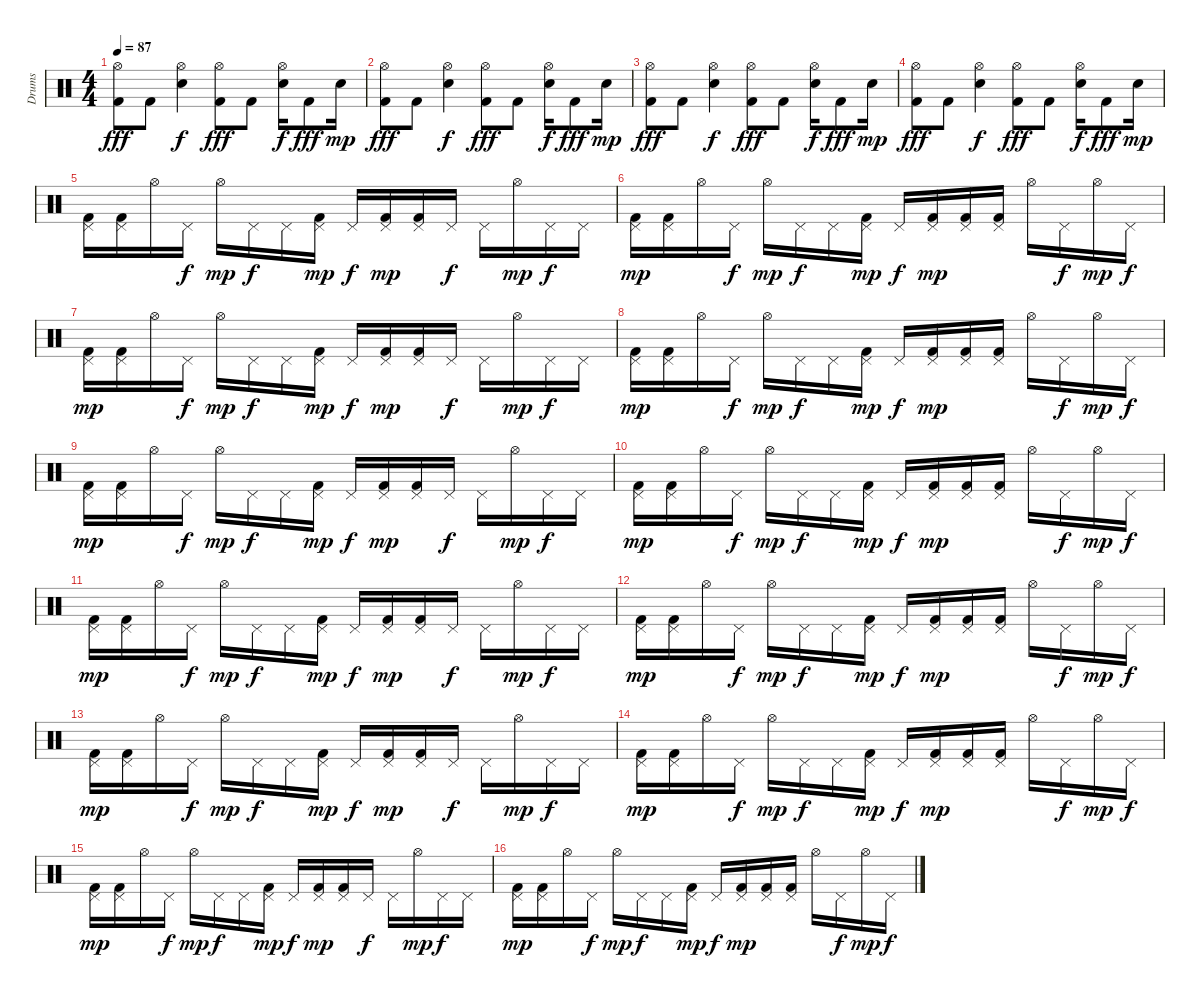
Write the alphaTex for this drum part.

\track ("Drums" "Drums") {instrument percussion}
\staff {score}
\articulation defaults
\ts (4 4)
\tempo 87
\clef neutral
\ks c
("Hi-Hat (open)" "Kick (hit) 2").8{dy fff} "Kick (hit) 2".8 ("Hi-Hat (open)" "Snare (hit) 2").4{dy f} ("Hi-Hat (open)" "Kick (hit) 2").8{dy fff} "Kick (hit) 2".8 ("Hi-Hat (open)" "Snare (hit) 2").16{dy f} "Kick (hit) 2".8{dy fff} "Snare (hit) 2".16{dy mp} |
("Hi-Hat (open)" "Kick (hit) 2").8{dy fff} "Kick (hit) 2".8 ("Hi-Hat (open)" "Snare (hit) 2").4{dy f} ("Hi-Hat (open)" "Kick (hit) 2").8{dy fff} "Kick (hit) 2".8 ("Hi-Hat (open)" "Snare (hit) 2").16{dy f} "Kick (hit) 2".8{dy fff} "Snare (hit) 2".16{dy mp} |
("Hi-Hat (open)" "Kick (hit) 2").8{dy fff} "Kick (hit) 2".8 ("Hi-Hat (open)" "Snare (hit) 2").4{dy f} ("Hi-Hat (open)" "Kick (hit) 2").8{dy fff} "Kick (hit) 2".8 ("Hi-Hat (open)" "Snare (hit) 2").16{dy f} "Kick (hit) 2".8{dy fff} "Snare (hit) 2".16{dy mp} |
("Hi-Hat (open)" "Kick (hit) 2").8{dy fff} "Kick (hit) 2".8 ("Hi-Hat (open)" "Snare (hit) 2").4{dy f} ("Hi-Hat (open)" "Kick (hit) 2").8{dy fff} "Kick (hit) 2".8 ("Hi-Hat (open)" "Snare (hit) 2").16{dy f} "Kick (hit) 2".8{dy fff} "Snare (hit) 2".16{dy mp} |
("Pedal Hi-Hat (hit)" "Kick (hit) 2").16 ("Pedal Hi-Hat (hit)" "Kick (hit) 2").16 "Hi-Hat (open)".16 "Pedal Hi-Hat (hit)".16{dy f} "Hi-Hat (open)".16{dy mp} "Pedal Hi-Hat (hit)".16{dy f} "Pedal Hi-Hat (hit)".16 ("Pedal Hi-Hat (hit)" "Kick (hit) 2").16{dy mp} "Pedal Hi-Hat (hit)".16{dy f} ("Pedal Hi-Hat (hit)" "Kick (hit) 2").16{dy mp} ("Pedal Hi-Hat (hit)" "Kick (hit) 2").16 "Pedal Hi-Hat (hit)".16{dy f} "Pedal Hi-Hat (hit)".16 "Hi-Hat (open)".16{dy mp} "Pedal Hi-Hat (hit)".16{dy f} "Pedal Hi-Hat (hit)".16 |
("Pedal Hi-Hat (hit)" "Kick (hit) 2").16{dy mp} ("Pedal Hi-Hat (hit)" "Kick (hit) 2").16 "Hi-Hat (open)".16 "Pedal Hi-Hat (hit)".16{dy f} "Hi-Hat (open)".16{dy mp} "Pedal Hi-Hat (hit)".16{dy f} "Pedal Hi-Hat (hit)".16 ("Pedal Hi-Hat (hit)" "Kick (hit) 2").16{dy mp} "Pedal Hi-Hat (hit)".16{dy f} ("Pedal Hi-Hat (hit)" "Kick (hit) 2").16{dy mp} ("Pedal Hi-Hat (hit)" "Kick (hit) 2").16 ("Pedal Hi-Hat (hit)" "Kick (hit) 2").16 "Hi-Hat (open)".16 "Pedal Hi-Hat (hit)".16{dy f} "Hi-Hat (open)".16{dy mp} "Pedal Hi-Hat (hit)".16{dy f} |
("Pedal Hi-Hat (hit)" "Kick (hit) 2").16{dy mp} ("Pedal Hi-Hat (hit)" "Kick (hit) 2").16 "Hi-Hat (open)".16 "Pedal Hi-Hat (hit)".16{dy f} "Hi-Hat (open)".16{dy mp} "Pedal Hi-Hat (hit)".16{dy f} "Pedal Hi-Hat (hit)".16 ("Pedal Hi-Hat (hit)" "Kick (hit) 2").16{dy mp} "Pedal Hi-Hat (hit)".16{dy f} ("Pedal Hi-Hat (hit)" "Kick (hit) 2").16{dy mp} ("Pedal Hi-Hat (hit)" "Kick (hit) 2").16 "Pedal Hi-Hat (hit)".16{dy f} "Pedal Hi-Hat (hit)".16 "Hi-Hat (open)".16{dy mp} "Pedal Hi-Hat (hit)".16{dy f} "Pedal Hi-Hat (hit)".16 |
("Pedal Hi-Hat (hit)" "Kick (hit) 2").16{dy mp} ("Pedal Hi-Hat (hit)" "Kick (hit) 2").16 "Hi-Hat (open)".16 "Pedal Hi-Hat (hit)".16{dy f} "Hi-Hat (open)".16{dy mp} "Pedal Hi-Hat (hit)".16{dy f} "Pedal Hi-Hat (hit)".16 ("Pedal Hi-Hat (hit)" "Kick (hit) 2").16{dy mp} "Pedal Hi-Hat (hit)".16{dy f} ("Pedal Hi-Hat (hit)" "Kick (hit) 2").16{dy mp} ("Pedal Hi-Hat (hit)" "Kick (hit) 2").16 ("Pedal Hi-Hat (hit)" "Kick (hit) 2").16 "Hi-Hat (open)".16 "Pedal Hi-Hat (hit)".16{dy f} "Hi-Hat (open)".16{dy mp} "Pedal Hi-Hat (hit)".16{dy f} |
("Pedal Hi-Hat (hit)" "Kick (hit) 2").16{dy mp} ("Pedal Hi-Hat (hit)" "Kick (hit) 2").16 "Hi-Hat (open)".16 "Pedal Hi-Hat (hit)".16{dy f} "Hi-Hat (open)".16{dy mp} "Pedal Hi-Hat (hit)".16{dy f} "Pedal Hi-Hat (hit)".16 ("Pedal Hi-Hat (hit)" "Kick (hit) 2").16{dy mp} "Pedal Hi-Hat (hit)".16{dy f} ("Pedal Hi-Hat (hit)" "Kick (hit) 2").16{dy mp} ("Pedal Hi-Hat (hit)" "Kick (hit) 2").16 "Pedal Hi-Hat (hit)".16{dy f} "Pedal Hi-Hat (hit)".16 "Hi-Hat (open)".16{dy mp} "Pedal Hi-Hat (hit)".16{dy f} "Pedal Hi-Hat (hit)".16 |
("Pedal Hi-Hat (hit)" "Kick (hit) 2").16{dy mp} ("Pedal Hi-Hat (hit)" "Kick (hit) 2").16 "Hi-Hat (open)".16 "Pedal Hi-Hat (hit)".16{dy f} "Hi-Hat (open)".16{dy mp} "Pedal Hi-Hat (hit)".16{dy f} "Pedal Hi-Hat (hit)".16 ("Pedal Hi-Hat (hit)" "Kick (hit) 2").16{dy mp} "Pedal Hi-Hat (hit)".16{dy f} ("Pedal Hi-Hat (hit)" "Kick (hit) 2").16{dy mp} ("Pedal Hi-Hat (hit)" "Kick (hit) 2").16 ("Pedal Hi-Hat (hit)" "Kick (hit) 2").16 "Hi-Hat (open)".16 "Pedal Hi-Hat (hit)".16{dy f} "Hi-Hat (open)".16{dy mp} "Pedal Hi-Hat (hit)".16{dy f} |
("Pedal Hi-Hat (hit)" "Kick (hit) 2").16{dy mp} ("Pedal Hi-Hat (hit)" "Kick (hit) 2").16 "Hi-Hat (open)".16 "Pedal Hi-Hat (hit)".16{dy f} "Hi-Hat (open)".16{dy mp} "Pedal Hi-Hat (hit)".16{dy f} "Pedal Hi-Hat (hit)".16 ("Pedal Hi-Hat (hit)" "Kick (hit) 2").16{dy mp} "Pedal Hi-Hat (hit)".16{dy f} ("Pedal Hi-Hat (hit)" "Kick (hit) 2").16{dy mp} ("Pedal Hi-Hat (hit)" "Kick (hit) 2").16 "Pedal Hi-Hat (hit)".16{dy f} "Pedal Hi-Hat (hit)".16 "Hi-Hat (open)".16{dy mp} "Pedal Hi-Hat (hit)".16{dy f} "Pedal Hi-Hat (hit)".16 |
("Pedal Hi-Hat (hit)" "Kick (hit) 2").16{dy mp} ("Pedal Hi-Hat (hit)" "Kick (hit) 2").16 "Hi-Hat (open)".16 "Pedal Hi-Hat (hit)".16{dy f} "Hi-Hat (open)".16{dy mp} "Pedal Hi-Hat (hit)".16{dy f} "Pedal Hi-Hat (hit)".16 ("Pedal Hi-Hat (hit)" "Kick (hit) 2").16{dy mp} "Pedal Hi-Hat (hit)".16{dy f} ("Pedal Hi-Hat (hit)" "Kick (hit) 2").16{dy mp} ("Pedal Hi-Hat (hit)" "Kick (hit) 2").16 ("Pedal Hi-Hat (hit)" "Kick (hit) 2").16 "Hi-Hat (open)".16 "Pedal Hi-Hat (hit)".16{dy f} "Hi-Hat (open)".16{dy mp} "Pedal Hi-Hat (hit)".16{dy f} |
("Pedal Hi-Hat (hit)" "Kick (hit) 2").16{dy mp} ("Pedal Hi-Hat (hit)" "Kick (hit) 2").16 "Hi-Hat (open)".16 "Pedal Hi-Hat (hit)".16{dy f} "Hi-Hat (open)".16{dy mp} "Pedal Hi-Hat (hit)".16{dy f} "Pedal Hi-Hat (hit)".16 ("Pedal Hi-Hat (hit)" "Kick (hit) 2").16{dy mp} "Pedal Hi-Hat (hit)".16{dy f} ("Pedal Hi-Hat (hit)" "Kick (hit) 2").16{dy mp} ("Pedal Hi-Hat (hit)" "Kick (hit) 2").16 "Pedal Hi-Hat (hit)".16{dy f} "Pedal Hi-Hat (hit)".16 "Hi-Hat (open)".16{dy mp} "Pedal Hi-Hat (hit)".16{dy f} "Pedal Hi-Hat (hit)".16 |
("Pedal Hi-Hat (hit)" "Kick (hit) 2").16{dy mp} ("Pedal Hi-Hat (hit)" "Kick (hit) 2").16 "Hi-Hat (open)".16 "Pedal Hi-Hat (hit)".16{dy f} "Hi-Hat (open)".16{dy mp} "Pedal Hi-Hat (hit)".16{dy f} "Pedal Hi-Hat (hit)".16 ("Pedal Hi-Hat (hit)" "Kick (hit) 2").16{dy mp} "Pedal Hi-Hat (hit)".16{dy f} ("Pedal Hi-Hat (hit)" "Kick (hit) 2").16{dy mp} ("Pedal Hi-Hat (hit)" "Kick (hit) 2").16 ("Pedal Hi-Hat (hit)" "Kick (hit) 2").16 "Hi-Hat (open)".16 "Pedal Hi-Hat (hit)".16{dy f} "Hi-Hat (open)".16{dy mp} "Pedal Hi-Hat (hit)".16{dy f} |
("Pedal Hi-Hat (hit)" "Kick (hit) 2").16{dy mp} ("Pedal Hi-Hat (hit)" "Kick (hit) 2").16 "Hi-Hat (open)".16 "Pedal Hi-Hat (hit)".16{dy f} "Hi-Hat (open)".16{dy mp} "Pedal Hi-Hat (hit)".16{dy f} "Pedal Hi-Hat (hit)".16 ("Pedal Hi-Hat (hit)" "Kick (hit) 2").16{dy mp} "Pedal Hi-Hat (hit)".16{dy f} ("Pedal Hi-Hat (hit)" "Kick (hit) 2").16{dy mp} ("Pedal Hi-Hat (hit)" "Kick (hit) 2").16 "Pedal Hi-Hat (hit)".16{dy f} "Pedal Hi-Hat (hit)".16 "Hi-Hat (open)".16{dy mp} "Pedal Hi-Hat (hit)".16{dy f} "Pedal Hi-Hat (hit)".16 |
("Pedal Hi-Hat (hit)" "Kick (hit) 2").16{dy mp} ("Pedal Hi-Hat (hit)" "Kick (hit) 2").16 "Hi-Hat (open)".16 "Pedal Hi-Hat (hit)".16{dy f} "Hi-Hat (open)".16{dy mp} "Pedal Hi-Hat (hit)".16{dy f} "Pedal Hi-Hat (hit)".16 ("Pedal Hi-Hat (hit)" "Kick (hit) 2").16{dy mp} "Pedal Hi-Hat (hit)".16{dy f} ("Pedal Hi-Hat (hit)" "Kick (hit) 2").16{dy mp} ("Pedal Hi-Hat (hit)" "Kick (hit) 2").16 ("Pedal Hi-Hat (hit)" "Kick (hit) 2").16 "Hi-Hat (open)".16 "Pedal Hi-Hat (hit)".16{dy f} "Hi-Hat (open)".16{dy mp} "Pedal Hi-Hat (hit)".16{dy f}
